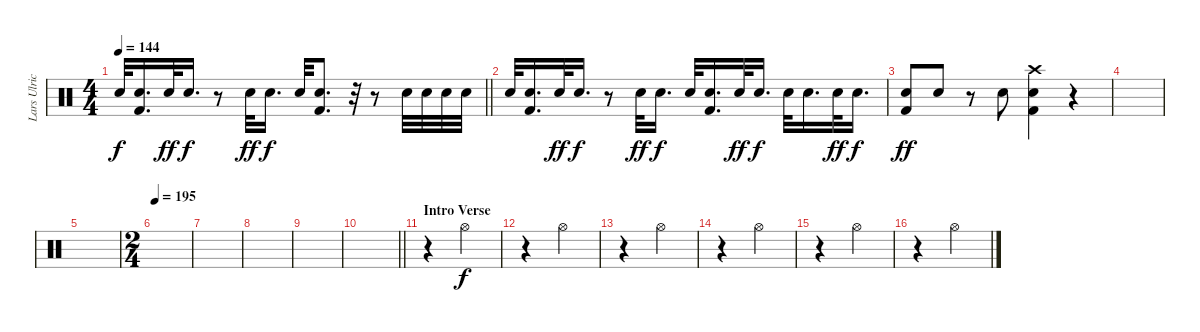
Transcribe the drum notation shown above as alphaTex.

\track ("Lars Ulrich" "Lars Ulric") {instrument percussion}
\staff {score}
\articulation defaults
\ts (4 4)
\tempo 144
\clef neutral
\barLineRight lightlight
\ks c "Snare (hit) 2".32{dy f}
("Snare (hit) 2" "Kick (hit) 2").16{d} "Snare (hit) 2".32{dy ff} "Snare (hit) 2".16{d dy f} r.8 "Snare (hit) 2".32{dy ff} "Snare (hit) 2".16{d dy f} "Snare (hit) 2".32 ("Snare (hit) 2" "Kick (hit) 2").8{d} r.32 r.8 "Snare (hit) 2".32 "Snare (hit) 2".32 "Snare (hit) 2".32 "Snare (hit) 2".32 |
"Snare (hit) 2".32 ("Snare (hit) 2" "Kick (hit) 2").16{d} "Snare (hit) 2".32{dy ff} "Snare (hit) 2".16{d dy f} r.8 "Snare (hit) 2".32{dy ff} "Snare (hit) 2".16{d dy f} "Snare (hit) 2".32 ("Snare (hit) 2" "Kick (hit) 2").16{d} "Snare (hit) 2".32{dy ff} "Snare (hit) 2".16{d dy f} "Snare (hit) 2".32 "Snare (hit) 2".16{d} "Snare (hit) 2".32{dy ff} "Snare (hit) 2".16{d dy f} |
("Kick (hit) 2" "Snare (hit) 2").8{dy ff} "Snare (hit) 2".8 r.8 "Snare (hit) 2".8 ("Kick (hit) 2" "Snare (hit) 2" "Crash high (hit)").4 r.4 |
|
|
\ts (2 4)
\tempo 195
|
|
|
|
\barLineRight lightlight
|
\section ("" "Intro Verse")
r.4 "Hi-Hat (open)".4{dy f} |
r.4 "Hi-Hat (open)".4 |
r.4 "Hi-Hat (open)".4 |
r.4 "Hi-Hat (open)".4 |
r.4 "Hi-Hat (open)".4 |
r.4 "Hi-Hat (open)".4
